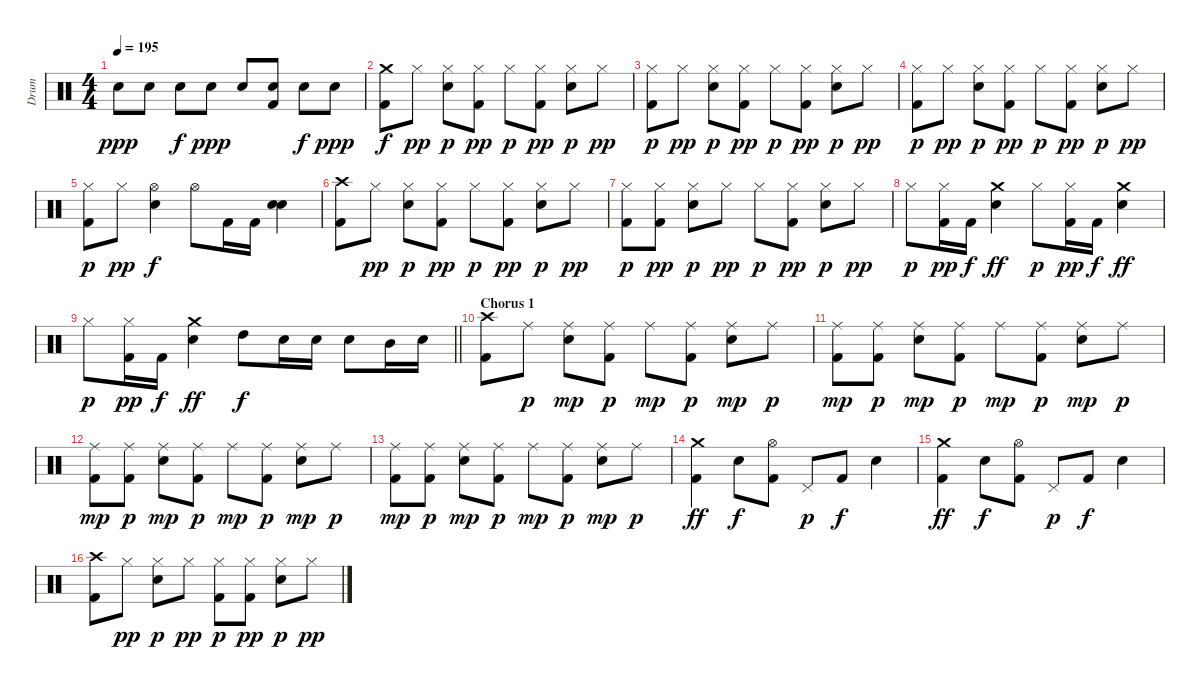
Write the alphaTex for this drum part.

\track ("Drum" "Drum") {instrument percussion}
\staff {score}
\articulation defaults
\ts (4 4)
\tempo 195
\clef neutral
\ks c "Electric Snare (hit)".8{dy ppp} "Electric Snare (hit)".8 "Electric Snare (hit)".8{dy f} "Electric Snare (hit)".8{dy ppp} "Electric Snare (hit)".8
("Electric Snare (hit)" "Kick (hit) 2").8 "Electric Snare (hit)".8{dy f} "Electric Snare (hit)".8{dy ppp} |
("Crash medium (hit)" "Kick (hit) 2").8{dy f} "Hi-Hat (closed)".8{dy pp} ("Hi-Hat (closed)" "Electric Snare (hit)").8{dy p} ("Hi-Hat (closed)" "Kick (hit) 2").8{dy pp} "Hi-Hat (closed)".8{dy p} ("Hi-Hat (closed)" "Kick (hit) 2").8{dy pp} ("Hi-Hat (closed)" "Electric Snare (hit)").8{dy p} "Hi-Hat (closed)".8{dy pp} |
("Hi-Hat (closed)" "Kick (hit) 2").8{dy p} "Hi-Hat (closed)".8{dy pp} ("Hi-Hat (closed)" "Electric Snare (hit)").8{dy p} ("Hi-Hat (closed)" "Kick (hit) 2").8{dy pp} "Hi-Hat (closed)".8{dy p} ("Hi-Hat (closed)" "Kick (hit) 2").8{dy pp} ("Hi-Hat (closed)" "Electric Snare (hit)").8{dy p} "Hi-Hat (closed)".8{dy pp} |
("Hi-Hat (closed)" "Kick (hit) 2").8{dy p} "Hi-Hat (closed)".8{dy pp} ("Hi-Hat (closed)" "Electric Snare (hit)").8{dy p} ("Hi-Hat (closed)" "Kick (hit) 2").8{dy pp} "Hi-Hat (closed)".8{dy p} ("Hi-Hat (closed)" "Kick (hit) 2").8{dy pp} ("Hi-Hat (closed)" "Electric Snare (hit)").8{dy p} "Hi-Hat (closed)".8{dy pp} |
("Hi-Hat (closed)" "Kick (hit) 2").8{dy p} "Hi-Hat (closed)".8{dy pp} ("Hi-Hat (open)" "Electric Snare (hit)").4{dy f} "Hi-Hat (open)".8 "Kick (hit) 2".16 "Kick (hit) 2".16 ("Electric Snare (hit)" "Electric Snare (hit)").4 |
("Crash high (hit)" "Kick (hit) 2").8 "Hi-Hat (closed)".8{dy pp} ("Hi-Hat (closed)" "Electric Snare (hit)").8{dy p} ("Hi-Hat (closed)" "Kick (hit) 2").8{dy pp} "Hi-Hat (closed)".8{dy p} ("Hi-Hat (closed)" "Kick (hit) 2").8{dy pp} ("Hi-Hat (closed)" "Electric Snare (hit)").8{dy p} "Hi-Hat (closed)".8{dy pp} |
("Hi-Hat (closed)" "Kick (hit) 2").8{dy p} ("Hi-Hat (closed)" "Kick (hit) 2").8{dy pp} ("Hi-Hat (closed)" "Electric Snare (hit)").8{dy p} "Hi-Hat (closed)".8{dy pp} "Hi-Hat (closed)".8{dy p} ("Hi-Hat (closed)" "Kick (hit) 2").8{dy pp} ("Hi-Hat (closed)" "Electric Snare (hit)").8{dy p} "Hi-Hat (closed)".8{dy pp} |
"Hi-Hat (closed)".8{dy p} ("Hi-Hat (closed)" "Kick (hit) 2").16{dy pp} "Kick (hit) 2".16{dy f} ("Crash medium (hit)" "Electric Snare (hit)").4{dy ff} "Hi-Hat (closed)".8{dy p} ("Hi-Hat (closed)" "Kick (hit) 2").16{dy pp} "Kick (hit) 2".16{dy f} ("Crash medium (hit)" "Electric Snare (hit)").4{dy ff} |
\barLineRight lightlight "Hi-Hat (closed)".8{dy p}
("Hi-Hat (closed)" "Kick (hit) 2").16{dy pp} "Kick (hit) 2".16{dy f} ("Crash medium (hit)" "Electric Snare (hit)").4{dy ff} "High Tom (hit)".8{dy f} "Electric Snare (hit)".16 "Electric Snare (hit)".16 "Electric Snare (hit)".8 "Mid Tom (hit)".16 "Electric Snare (hit)".16 |
\section ("" "Chorus 1")
("Crash high (hit)" "Kick (hit) 2").8 "Ride (middle)".8{dy p} ("Ride (middle)" "Electric Snare (hit)").8{dy mp} ("Ride (middle)" "Kick (hit) 2").8{dy p} "Ride (middle)".8{dy mp} ("Ride (middle)" "Kick (hit) 2").8{dy p} ("Ride (middle)" "Electric Snare (hit)").8{dy mp} "Ride (middle)".8{dy p} |
("Ride (middle)" "Kick (hit) 2").8{dy mp} ("Ride (middle)" "Kick (hit) 2").8{dy p} ("Ride (middle)" "Electric Snare (hit)").8{dy mp} ("Ride (middle)" "Kick (hit) 2").8{dy p} "Ride (middle)".8{dy mp} ("Ride (middle)" "Kick (hit) 2").8{dy p} ("Ride (middle)" "Electric Snare (hit)").8{dy mp} "Ride (middle)".8{dy p} |
("Ride (middle)" "Kick (hit) 2").8{dy mp} ("Ride (middle)" "Kick (hit) 2").8{dy p} ("Ride (middle)" "Electric Snare (hit)").8{dy mp} ("Ride (middle)" "Kick (hit) 2").8{dy p} "Ride (middle)".8{dy mp} ("Ride (middle)" "Kick (hit) 2").8{dy p} ("Ride (middle)" "Electric Snare (hit)").8{dy mp} "Ride (middle)".8{dy p} |
("Ride (middle)" "Kick (hit) 2").8{dy mp} ("Ride (middle)" "Kick (hit) 2").8{dy p} ("Ride (middle)" "Electric Snare (hit)").8{dy mp} ("Ride (middle)" "Kick (hit) 2").8{dy p} "Ride (middle)".8{dy mp} ("Ride (middle)" "Kick (hit) 2").8{dy p} ("Ride (middle)" "Electric Snare (hit)").8{dy mp} "Ride (middle)".8{dy p} |
("Crash medium (hit)" "Kick (hit) 2").4{dy ff} "Electric Snare (hit)".8{dy f} ("Hi-Hat (open)" "Kick (hit) 2").8 "Pedal Hi-Hat (hit)".8{dy p} "Kick (hit) 2".8{dy f} "Electric Snare (hit)".4 |
("Crash medium (hit)" "Kick (hit) 2").4{dy ff} "Electric Snare (hit)".8{dy f} ("Hi-Hat (open)" "Kick (hit) 2").8 "Pedal Hi-Hat (hit)".8{dy p} "Kick (hit) 2".8{dy f} "Electric Snare (hit)".4 |
("Crash high (hit)" "Kick (hit) 2").8 "Hi-Hat (closed)".8{dy pp} ("Hi-Hat (closed)" "Electric Snare (hit)").8{dy p} "Hi-Hat (closed)".8{dy pp} ("Hi-Hat (closed)" "Kick (hit) 2").8{dy p} ("Hi-Hat (closed)" "Kick (hit) 2").8{dy pp} ("Hi-Hat (closed)" "Electric Snare (hit)").8{dy p} "Hi-Hat (closed)".8{dy pp}
